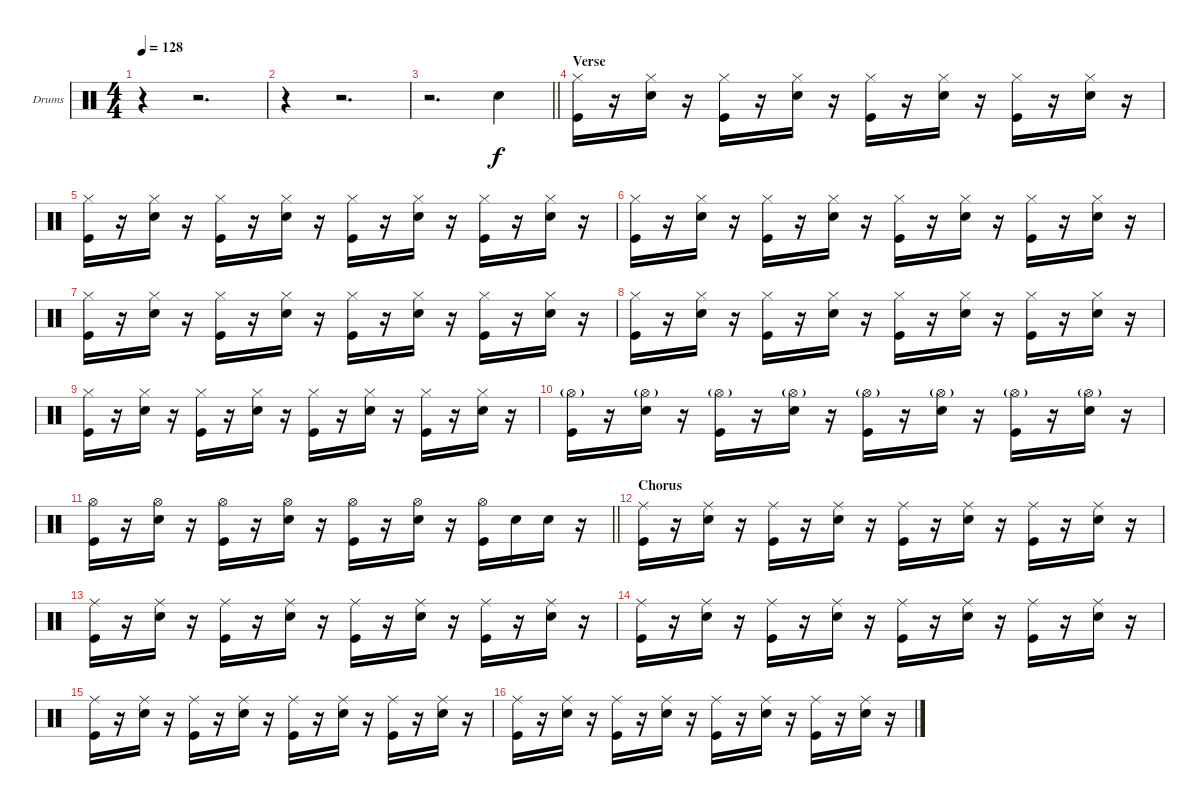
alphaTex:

\bracketExtendMode groupsimilarinstruments
\firstSystemTrackNameOrientation horizontal
\otherSystemsTrackNameOrientation horizontal
\track ("Drumkit" "Drums") {instrument percussion}
\staff {score}
\articulation defaults
\ts (4 4)
\tempo 128
\clef neutral
\ks c
r.4{dy f} r.2{d} |
r.4 r.2{d} |
\barLineRight lightlight
r.2{d} "Snare (hit) 2".4 |
\section ("" "Verse")
("Kick (hit)" "Hi-Hat (closed)").16 r.16 ("Snare (hit) 2" "Hi-Hat (closed)").16 r.16 ("Kick (hit)" "Hi-Hat (closed)").16 r.16 ("Snare (hit) 2" "Hi-Hat (closed)").16 r.16 ("Kick (hit)" "Hi-Hat (closed)").16 r.16 ("Snare (hit) 2" "Hi-Hat (closed)").16 r.16 ("Kick (hit)" "Hi-Hat (closed)").16 r.16 ("Snare (hit) 2" "Hi-Hat (closed)").16 r.16 |
("Kick (hit)" "Hi-Hat (closed)").16 r.16 ("Snare (hit) 2" "Hi-Hat (closed)").16 r.16 ("Kick (hit)" "Hi-Hat (closed)").16 r.16 ("Snare (hit) 2" "Hi-Hat (closed)").16 r.16 ("Kick (hit)" "Hi-Hat (closed)").16 r.16 ("Snare (hit) 2" "Hi-Hat (closed)").16 r.16 ("Kick (hit)" "Hi-Hat (closed)").16 r.16 ("Snare (hit) 2" "Hi-Hat (closed)").16 r.16 |
("Kick (hit)" "Hi-Hat (closed)").16 r.16 ("Snare (hit) 2" "Hi-Hat (closed)").16 r.16 ("Kick (hit)" "Hi-Hat (closed)").16 r.16 ("Snare (hit) 2" "Hi-Hat (closed)").16 r.16 ("Kick (hit)" "Hi-Hat (closed)").16 r.16 ("Snare (hit) 2" "Hi-Hat (closed)").16 r.16 ("Kick (hit)" "Hi-Hat (closed)").16 r.16 ("Snare (hit) 2" "Hi-Hat (closed)").16 r.16 |
("Kick (hit)" "Hi-Hat (closed)").16 r.16 ("Snare (hit) 2" "Hi-Hat (closed)").16 r.16 ("Kick (hit)" "Hi-Hat (closed)").16 r.16 ("Snare (hit) 2" "Hi-Hat (closed)").16 r.16 ("Kick (hit)" "Hi-Hat (closed)").16 r.16 ("Snare (hit) 2" "Hi-Hat (closed)").16 r.16 ("Kick (hit)" "Hi-Hat (closed)").16 r.16 ("Snare (hit) 2" "Hi-Hat (closed)").16 r.16 |
("Kick (hit)" "Hi-Hat (closed)").16 r.16 ("Snare (hit) 2" "Hi-Hat (closed)").16 r.16 ("Kick (hit)" "Hi-Hat (closed)").16 r.16 ("Snare (hit) 2" "Hi-Hat (closed)").16 r.16 ("Kick (hit)" "Hi-Hat (closed)").16 r.16 ("Snare (hit) 2" "Hi-Hat (closed)").16 r.16 ("Kick (hit)" "Hi-Hat (closed)").16 r.16 ("Snare (hit) 2" "Hi-Hat (closed)").16 r.16 |
("Kick (hit)" "Hi-Hat (closed)").16 r.16 ("Snare (hit) 2" "Hi-Hat (closed)").16 r.16 ("Kick (hit)" "Hi-Hat (closed)").16 r.16 ("Snare (hit) 2" "Hi-Hat (closed)").16 r.16 ("Kick (hit)" "Hi-Hat (closed)").16 r.16 ("Snare (hit) 2" "Hi-Hat (closed)").16 r.16 ("Kick (hit)" "Hi-Hat (closed)").16 r.16 ("Snare (hit) 2" "Hi-Hat (closed)").16 r.16 |
("Kick (hit)" "Hi-Hat (open)"{g}).16 r.16 ("Snare (hit) 2" "Hi-Hat (open)"{g}).16 r.16 ("Kick (hit)" "Hi-Hat (open)"{g}).16 r.16 ("Snare (hit) 2" "Hi-Hat (open)"{g}).16 r.16 ("Kick (hit)" "Hi-Hat (open)"{g}).16 r.16 ("Snare (hit) 2" "Hi-Hat (open)"{g}).16 r.16 ("Kick (hit)" "Hi-Hat (open)"{g}).16 r.16 ("Snare (hit) 2" "Hi-Hat (open)"{g}).16 r.16 |
\barLineRight lightlight
("Kick (hit)" "Hi-Hat (open)").16 r.16 ("Snare (hit) 2" "Hi-Hat (open)").16 r.16 ("Kick (hit)" "Hi-Hat (open)").16 r.16 ("Snare (hit) 2" "Hi-Hat (open)").16 r.16 ("Kick (hit)" "Hi-Hat (open)").16 r.16 ("Snare (hit) 2" "Hi-Hat (open)").16 r.16 ("Kick (hit)" "Hi-Hat (open)").16 "Snare (hit) 2".16 "Snare (hit) 2".16 r.16 |
\section ("" "Chorus")
("Kick (hit)" "Ride (middle)").16 r.16 ("Snare (hit) 2" "Ride (middle)").16 r.16 ("Kick (hit)" "Ride (middle)").16 r.16 ("Snare (hit) 2" "Ride (middle)").16 r.16 ("Kick (hit)" "Ride (middle)").16 r.16 ("Snare (hit) 2" "Ride (middle)").16 r.16 ("Kick (hit)" "Ride (middle)").16 r.16 ("Snare (hit) 2" "Ride (middle)").16 r.16 |
("Kick (hit)" "Ride (middle)").16 r.16 ("Snare (hit) 2" "Ride (middle)").16 r.16 ("Kick (hit)" "Ride (middle)").16 r.16 ("Snare (hit) 2" "Ride (middle)").16 r.16 ("Kick (hit)" "Ride (middle)").16 r.16 ("Snare (hit) 2" "Ride (middle)").16 r.16 ("Kick (hit)" "Ride (middle)").16 r.16 ("Snare (hit) 2" "Ride (middle)").16 r.16 |
("Kick (hit)" "Ride (middle)").16 r.16 ("Snare (hit) 2" "Ride (middle)").16 r.16 ("Kick (hit)" "Ride (middle)").16 r.16 ("Snare (hit) 2" "Ride (middle)").16 r.16 ("Kick (hit)" "Ride (middle)").16 r.16 ("Snare (hit) 2" "Ride (middle)").16 r.16 ("Kick (hit)" "Ride (middle)").16 r.16 ("Snare (hit) 2" "Ride (middle)").16 r.16 |
("Kick (hit)" "Ride (middle)").16 r.16 ("Snare (hit) 2" "Ride (middle)").16 r.16 ("Kick (hit)" "Ride (middle)").16 r.16 ("Snare (hit) 2" "Ride (middle)").16 r.16 ("Kick (hit)" "Ride (middle)").16 r.16 ("Snare (hit) 2" "Ride (middle)").16 r.16 ("Kick (hit)" "Ride (middle)").16 r.16 ("Snare (hit) 2" "Ride (middle)").16 r.16 |
("Kick (hit)" "Ride (middle)").16 r.16 ("Snare (hit) 2" "Ride (middle)").16 r.16 ("Kick (hit)" "Ride (middle)").16 r.16 ("Snare (hit) 2" "Ride (middle)").16 r.16 ("Kick (hit)" "Ride (middle)").16 r.16 ("Snare (hit) 2" "Ride (middle)").16 r.16 ("Kick (hit)" "Ride (middle)").16 r.16 ("Snare (hit) 2" "Ride (middle)").16 r.16
